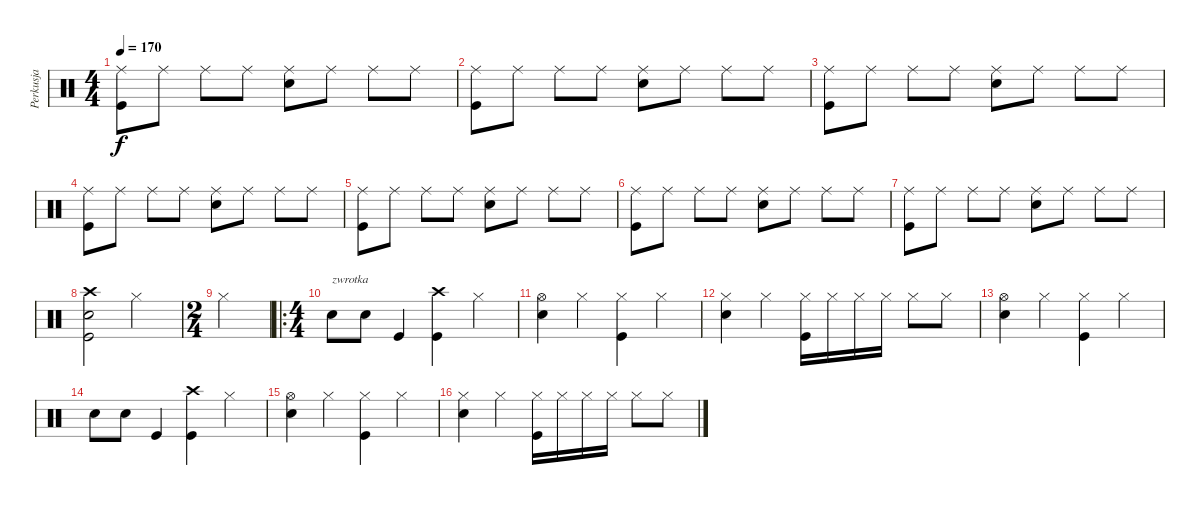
\track ("Perkusja" "Perkusja") {instrument percussion}
\staff {score}
\articulation defaults
\ts (4 4)
\tempo 170
\clef neutral
\ks c
("Ride (middle)" "Kick (hit)").8{dy f} "Ride (middle)".8 "Ride (middle)".8 "Ride (middle)".8 ("Ride (middle)" "Electric Snare (hit)").8 "Ride (middle)".8 "Ride (middle)".8 "Ride (middle)".8 |
("Ride (middle)" "Kick (hit)").8 "Ride (middle)".8 "Ride (middle)".8 "Ride (middle)".8 ("Ride (middle)" "Electric Snare (hit)").8 "Ride (middle)".8 "Ride (middle)".8 "Ride (middle)".8 |
("Ride (middle)" "Kick (hit)").8 "Ride (middle)".8 "Ride (middle)".8 "Ride (middle)".8 ("Ride (middle)" "Electric Snare (hit)").8 "Ride (middle)".8 "Ride (middle)".8 "Ride (middle)".8 |
("Ride (middle)" "Kick (hit)").8 "Ride (middle)".8 "Ride (middle)".8 "Ride (middle)".8 ("Ride (middle)" "Electric Snare (hit)").8 "Ride (middle)".8 "Ride (middle)".8 "Ride (middle)".8 |
("Ride (middle)" "Kick (hit)").8 "Ride (middle)".8 "Ride (middle)".8 "Ride (middle)".8 ("Ride (middle)" "Electric Snare (hit)").8 "Ride (middle)".8 "Ride (middle)".8 "Ride (middle)".8 |
("Ride (middle)" "Kick (hit)").8 "Ride (middle)".8 "Ride (middle)".8 "Ride (middle)".8 ("Ride (middle)" "Electric Snare (hit)").8 "Ride (middle)".8 "Ride (middle)".8 "Ride (middle)".8 |
("Ride (middle)" "Kick (hit)").8 "Ride (middle)".8 "Ride (middle)".8 "Ride (middle)".8 ("Ride (middle)" "Electric Snare (hit)").8 "Ride (middle)".8 "Ride (middle)".8 "Ride (middle)".8 |
("Crash high (hit)" "Electric Snare (hit)" "Kick (hit)").2 "Hi-Hat (closed)".2 |
\ts (2 4)
"Hi-Hat (closed)".2 |
\ro
\ts (4 4)
"Electric Snare (hit)".8{txt "zwrotka"} "Electric Snare (hit)".8 "Kick (hit)".4 ("Crash high (hit)" "Kick (hit)").4 "Hi-Hat (closed)".4 |
("Hi-Hat (open)" "Electric Snare (hit)").4 "Hi-Hat (closed)".4 ("Hi-Hat (closed)" "Kick (hit)").4 "Hi-Hat (closed)".4 |
("Hi-Hat (closed)" "Electric Snare (hit)").4 "Hi-Hat (closed)".4 ("Hi-Hat (closed)" "Kick (hit)").16 "Hi-Hat (closed)".16 "Hi-Hat (closed)".16 "Hi-Hat (closed)".16 "Hi-Hat (closed)".8 "Hi-Hat (closed)".8 |
("Hi-Hat (open)" "Electric Snare (hit)").4 "Hi-Hat (closed)".4 ("Hi-Hat (closed)" "Kick (hit)").4 "Hi-Hat (closed)".4 |
"Electric Snare (hit)".8 "Electric Snare (hit)".8 "Kick (hit)".4 ("Crash high (hit)" "Kick (hit)").4 "Hi-Hat (closed)".4 |
("Hi-Hat (open)" "Electric Snare (hit)").4 "Hi-Hat (closed)".4 ("Hi-Hat (closed)" "Kick (hit)").4 "Hi-Hat (closed)".4 |
("Hi-Hat (closed)" "Electric Snare (hit)").4 "Hi-Hat (closed)".4 ("Hi-Hat (closed)" "Kick (hit)").16 "Hi-Hat (closed)".16 "Hi-Hat (closed)".16 "Hi-Hat (closed)".16 "Hi-Hat (closed)".8 "Hi-Hat (closed)".8
